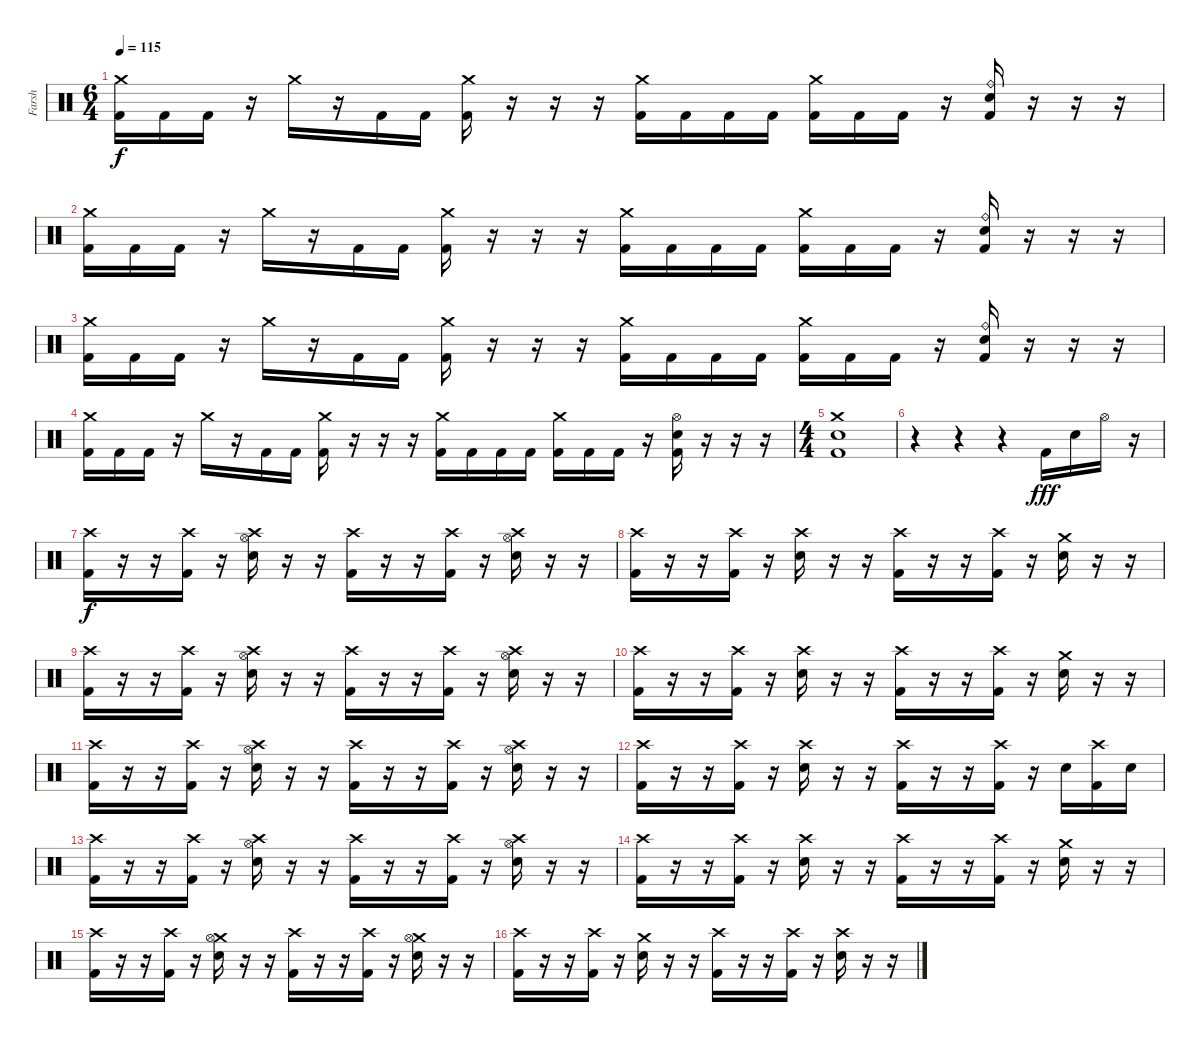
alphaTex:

\track ("Farsh" "Farsh") {instrument percussion}
\staff {score}
\articulation defaults
\ts (6 4)
\tempo 115
\clef neutral
\ks c
("Crash medium (hit)" "Kick (hit) 2").16{dy f} "Kick (hit) 2".16 "Kick (hit) 2".16 r.16 "Crash medium (hit)".16 r.16 "Kick (hit) 2".16 "Kick (hit) 2".16 ("Crash medium (hit)" "Kick (hit) 2").16 r.16 r.16 r.16 ("Crash medium (hit)" "Kick (hit) 2").16 "Kick (hit) 2".16 "Kick (hit) 2".16 "Kick (hit) 2".16 ("Crash medium (hit)" "Kick (hit) 2").16 "Kick (hit) 2".16 "Kick (hit) 2".16 r.16 ("Ride (bell)" "Electric Snare (hit)" "Kick (hit) 2").16 r.16 r.16 r.16 |
("Crash medium (hit)" "Kick (hit) 2").16 "Kick (hit) 2".16 "Kick (hit) 2".16 r.16 "Crash medium (hit)".16 r.16 "Kick (hit) 2".16 "Kick (hit) 2".16 ("Crash medium (hit)" "Kick (hit) 2").16 r.16 r.16 r.16 ("Crash medium (hit)" "Kick (hit) 2").16 "Kick (hit) 2".16 "Kick (hit) 2".16 "Kick (hit) 2".16 ("Crash medium (hit)" "Kick (hit) 2").16 "Kick (hit) 2".16 "Kick (hit) 2".16 r.16 ("Ride (bell)" "Electric Snare (hit)" "Kick (hit) 2").16 r.16 r.16 r.16 |
("Crash medium (hit)" "Kick (hit) 2").16 "Kick (hit) 2".16 "Kick (hit) 2".16 r.16 "Crash medium (hit)".16 r.16 "Kick (hit) 2".16 "Kick (hit) 2".16 ("Crash medium (hit)" "Kick (hit) 2").16 r.16 r.16 r.16 ("Crash medium (hit)" "Kick (hit) 2").16 "Kick (hit) 2".16 "Kick (hit) 2".16 "Kick (hit) 2".16 ("Crash medium (hit)" "Kick (hit) 2").16 "Kick (hit) 2".16 "Kick (hit) 2".16 r.16 ("Ride (bell)" "Electric Snare (hit)" "Kick (hit) 2").16 r.16 r.16 r.16 |
("Crash medium (hit)" "Kick (hit) 2").16 "Kick (hit) 2".16 "Kick (hit) 2".16 r.16 "Crash medium (hit)".16 r.16 "Kick (hit) 2".16 "Kick (hit) 2".16 ("Crash medium (hit)" "Kick (hit) 2").16 r.16 r.16 r.16 ("Crash medium (hit)" "Kick (hit) 2").16 "Kick (hit) 2".16 "Kick (hit) 2".16 "Kick (hit) 2".16 ("Crash medium (hit)" "Kick (hit) 2").16 "Kick (hit) 2".16 "Kick (hit) 2".16 r.16 ("Hi-Hat (open)" "Electric Snare (hit)" "Kick (hit) 2").16 r.16 r.16 r.16 |
\ts (4 4)
("Crash medium (hit)" "Electric Snare (hit)" "Kick (hit) 2").1 |
r.4 r.4 r.4 "Kick (hit) 2".16{dy fff} "Electric Snare (hit)".16 "Hi-Hat (open)".16 r.16 |
("Crash high (hit)" "Kick (hit) 2").16{dy f} r.16 r.16 ("Crash high (hit)" "Kick (hit) 2").16 r.16 ("Crash high (hit)" "Hi-Hat (open)" "Electric Snare (hit)").16 r.16 r.16 ("Crash high (hit)" "Kick (hit) 2").16 r.16 r.16 ("Crash high (hit)" "Kick (hit) 2").16 r.16 ("Crash high (hit)" "Hi-Hat (open)" "Electric Snare (hit)").16 r.16 r.16 |
("Crash high (hit)" "Kick (hit) 2").16 r.16 r.16 ("Crash high (hit)" "Kick (hit) 2").16 r.16 ("Crash high (hit)" "Electric Snare (hit)").16 r.16 r.16 ("Crash high (hit)" "Kick (hit) 2").16 r.16 r.16 ("Crash high (hit)" "Kick (hit) 2").16 r.16 ("Crash medium (hit)" "Electric Snare (hit)").16 r.16 r.16 |
("Crash high (hit)" "Kick (hit) 2").16 r.16 r.16 ("Crash high (hit)" "Kick (hit) 2").16 r.16 ("Crash high (hit)" "Hi-Hat (open)" "Electric Snare (hit)").16 r.16 r.16 ("Crash high (hit)" "Kick (hit) 2").16 r.16 r.16 ("Crash high (hit)" "Kick (hit) 2").16 r.16 ("Crash high (hit)" "Hi-Hat (open)" "Electric Snare (hit)").16 r.16 r.16 |
("Crash high (hit)" "Kick (hit) 2").16 r.16 r.16 ("Crash high (hit)" "Kick (hit) 2").16 r.16 ("Crash high (hit)" "Electric Snare (hit)").16 r.16 r.16 ("Crash high (hit)" "Kick (hit) 2").16 r.16 r.16 ("Crash high (hit)" "Kick (hit) 2").16 r.16 ("Crash medium (hit)" "Electric Snare (hit)").16 r.16 r.16 |
("Crash high (hit)" "Kick (hit) 2").16 r.16 r.16 ("Crash high (hit)" "Kick (hit) 2").16 r.16 ("Crash high (hit)" "Hi-Hat (open)" "Electric Snare (hit)").16 r.16 r.16 ("Crash high (hit)" "Kick (hit) 2").16 r.16 r.16 ("Crash high (hit)" "Kick (hit) 2").16 r.16 ("Crash high (hit)" "Hi-Hat (open)" "Electric Snare (hit)").16 r.16 r.16 |
("Crash high (hit)" "Kick (hit) 2").16 r.16 r.16 ("Crash high (hit)" "Kick (hit) 2").16 r.16 ("Crash high (hit)" "Electric Snare (hit)").16 r.16 r.16 ("Crash high (hit)" "Kick (hit) 2").16 r.16 r.16 ("Crash high (hit)" "Kick (hit) 2").16 r.16 "Electric Snare (hit)".16 ("Crash high (hit)" "Kick (hit) 2").16 "Electric Snare (hit)".16 |
("Crash high (hit)" "Kick (hit) 2").16 r.16 r.16 ("Crash high (hit)" "Kick (hit) 2").16 r.16 ("Crash high (hit)" "Hi-Hat (open)" "Electric Snare (hit)").16 r.16 r.16 ("Crash high (hit)" "Kick (hit) 2").16 r.16 r.16 ("Crash high (hit)" "Kick (hit) 2").16 r.16 ("Crash high (hit)" "Hi-Hat (open)" "Electric Snare (hit)").16 r.16 r.16 |
("Crash high (hit)" "Kick (hit) 2").16 r.16 r.16 ("Crash high (hit)" "Kick (hit) 2").16 r.16 ("Crash high (hit)" "Electric Snare (hit)").16 r.16 r.16 ("Crash high (hit)" "Kick (hit) 2").16 r.16 r.16 ("Crash high (hit)" "Kick (hit) 2").16 r.16 ("Crash medium (hit)" "Electric Snare (hit)").16 r.16 r.16 |
("Crash high (hit)" "Kick (hit) 2").16 r.16 r.16 ("Crash high (hit)" "Kick (hit) 2").16 r.16 ("Crash medium (hit)" "Hi-Hat (open)" "Electric Snare (hit)").16 r.16 r.16 ("Crash high (hit)" "Kick (hit) 2").16 r.16 r.16 ("Crash high (hit)" "Kick (hit) 2").16 r.16 ("Crash medium (hit)" "Hi-Hat (open)" "Electric Snare (hit)").16 r.16 r.16 |
("Crash high (hit)" "Kick (hit) 2").16 r.16 r.16 ("Crash high (hit)" "Kick (hit) 2").16 r.16 ("Crash medium (hit)" "Electric Snare (hit)").16 r.16 r.16 ("Crash high (hit)" "Kick (hit) 2").16 r.16 r.16 ("Crash high (hit)" "Kick (hit) 2").16 r.16 ("Crash high (hit)" "Electric Snare (hit)").16 r.16 r.16
